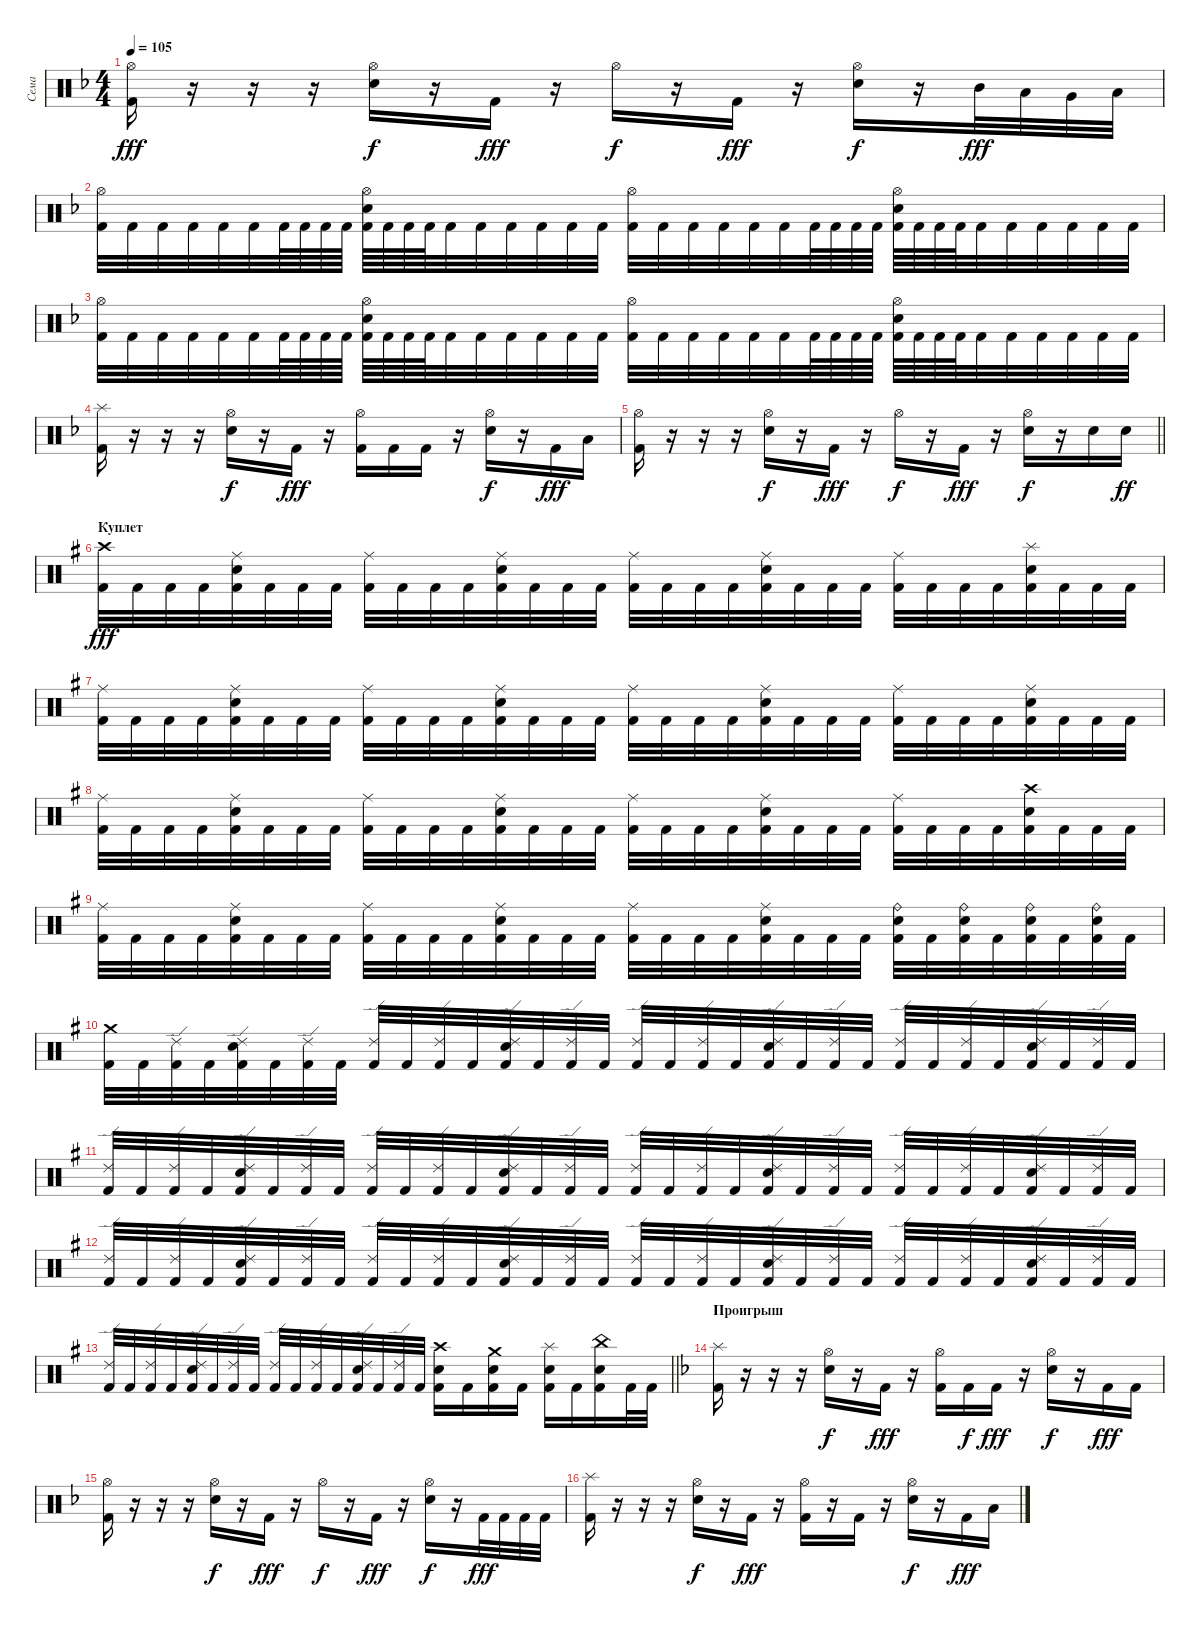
\track ("Сема" "Сема") {instrument percussion}
\staff {score}
\articulation defaults
\ts (4 4)
\tempo 105
\clef neutral
\ks dminor
("Hi-Hat (open)" "Kick (hit) 2").16{dy fff} r.16 r.16 r.16 ("Hi-Hat (open)" "Electric Snare (hit)").16{dy f} r.16 "Kick (hit) 2".16{dy fff} r.16 "Hi-Hat (open)".16{dy f} r.16 "Kick (hit) 2".16{dy fff} r.16 ("Hi-Hat (open)" "Electric Snare (hit)").16{dy f} r.16 "Mid Tom (hit)".32{dy fff} "Low Tom (hit)".32 "Very Low Tom (hit)".32 "Low Floor Tom (hit)".32 |
("Hi-Hat (open)" "Kick (hit) 2").32 "Kick (hit) 2".32 "Kick (hit) 2".32 "Kick (hit) 2".32 "Kick (hit) 2".32 "Kick (hit) 2".32 "Kick (hit) 2".64 "Kick (hit) 2".64 "Kick (hit) 2".64 "Kick (hit) 2".64 ("Hi-Hat (open)" "Electric Snare (hit)" "Kick (hit) 2").64 "Kick (hit) 2".64 "Kick (hit) 2".64 "Kick (hit) 2".64 "Kick (hit) 2".32 "Kick (hit) 2".32 "Kick (hit) 2".32 "Kick (hit) 2".32 "Kick (hit) 2".32 "Kick (hit) 2".32 ("Hi-Hat (open)" "Kick (hit) 2").32 "Kick (hit) 2".32 "Kick (hit) 2".32 "Kick (hit) 2".32 "Kick (hit) 2".32 "Kick (hit) 2".32 "Kick (hit) 2".64 "Kick (hit) 2".64 "Kick (hit) 2".64 "Kick (hit) 2".64 ("Hi-Hat (open)" "Electric Snare (hit)" "Kick (hit) 2").64 "Kick (hit) 2".64 "Kick (hit) 2".64 "Kick (hit) 2".64 "Kick (hit) 2".32 "Kick (hit) 2".32 "Kick (hit) 2".32 "Kick (hit) 2".32 "Kick (hit) 2".32 "Kick (hit) 2".32 |
("Hi-Hat (open)" "Kick (hit) 2").32 "Kick (hit) 2".32 "Kick (hit) 2".32 "Kick (hit) 2".32 "Kick (hit) 2".32 "Kick (hit) 2".32 "Kick (hit) 2".64 "Kick (hit) 2".64 "Kick (hit) 2".64 "Kick (hit) 2".64 ("Hi-Hat (open)" "Electric Snare (hit)" "Kick (hit) 2").64 "Kick (hit) 2".64 "Kick (hit) 2".64 "Kick (hit) 2".64 "Kick (hit) 2".32 "Kick (hit) 2".32 "Kick (hit) 2".32 "Kick (hit) 2".32 "Kick (hit) 2".32 "Kick (hit) 2".32 ("Hi-Hat (open)" "Kick (hit) 2").32 "Kick (hit) 2".32 "Kick (hit) 2".32 "Kick (hit) 2".32 "Kick (hit) 2".32 "Kick (hit) 2".32 "Kick (hit) 2".64 "Kick (hit) 2".64 "Kick (hit) 2".64 "Kick (hit) 2".64 ("Hi-Hat (open)" "Electric Snare (hit)" "Kick (hit) 2").64 "Kick (hit) 2".64 "Kick (hit) 2".64 "Kick (hit) 2".64 "Kick (hit) 2".32 "Kick (hit) 2".32 "Kick (hit) 2".32 "Kick (hit) 2".32 "Kick (hit) 2".32 "Kick (hit) 2".32 |
("Splash (hit)" "Kick (hit) 2").16 r.16 r.16 r.16 ("Hi-Hat (open)" "Electric Snare (hit)").16{dy f} r.16 "Kick (hit) 2".16{dy fff} r.16 ("Hi-Hat (open)" "Kick (hit) 2").16 "Kick (hit) 2".16 "Kick (hit) 2".16 r.16 ("Hi-Hat (open)" "Electric Snare (hit)").16{dy f} r.16 "Kick (hit) 2".16{dy fff} "Low Floor Tom (hit)".16 |
\barLineRight lightlight
("Hi-Hat (open)" "Kick (hit) 2").16 r.16 r.16 r.16 ("Hi-Hat (open)" "Electric Snare (hit)").16{dy f} r.16 "Kick (hit) 2".16{dy fff} r.16 "Hi-Hat (open)".16{dy f} r.16 "Kick (hit) 2".16{dy fff} r.16 ("Hi-Hat (open)" "Electric Snare (hit)").16{dy f} r.16 "Electric Snare (hit)".16 "Electric Snare (hit)".16{dy ff} |
\section ("" "Куплет")
\ks g
("Crash high (hit)" "Kick (hit) 2").32{dy fff} "Kick (hit) 2".32 "Kick (hit) 2".32 "Kick (hit) 2".32 ("Ride (middle)" "Electric Snare (hit)" "Kick (hit) 2").32 "Kick (hit) 2".32 "Kick (hit) 2".32 "Kick (hit) 2".32 ("Ride (middle)" "Kick (hit) 2").32 "Kick (hit) 2".32 "Kick (hit) 2".32 "Kick (hit) 2".32 ("Ride (middle)" "Electric Snare (hit)" "Kick (hit) 2").32 "Kick (hit) 2".32 "Kick (hit) 2".32 "Kick (hit) 2".32 ("Ride (middle)" "Kick (hit) 2").32 "Kick (hit) 2".32 "Kick (hit) 2".32 "Kick (hit) 2".32 ("Ride (middle)" "Electric Snare (hit)" "Kick (hit) 2").32 "Kick (hit) 2".32 "Kick (hit) 2".32 "Kick (hit) 2".32 ("Ride (middle)" "Kick (hit) 2").32 "Kick (hit) 2".32 "Kick (hit) 2".32 "Kick (hit) 2".32 ("Splash (hit)" "Electric Snare (hit)" "Kick (hit) 2").32 "Kick (hit) 2".32 "Kick (hit) 2".32 "Kick (hit) 2".32 |
("Ride (middle)" "Kick (hit) 2").32 "Kick (hit) 2".32 "Kick (hit) 2".32 "Kick (hit) 2".32 ("Ride (middle)" "Electric Snare (hit)" "Kick (hit) 2").32 "Kick (hit) 2".32 "Kick (hit) 2".32 "Kick (hit) 2".32 ("Ride (middle)" "Kick (hit) 2").32 "Kick (hit) 2".32 "Kick (hit) 2".32 "Kick (hit) 2".32 ("Ride (middle)" "Electric Snare (hit)" "Kick (hit) 2").32 "Kick (hit) 2".32 "Kick (hit) 2".32 "Kick (hit) 2".32 ("Ride (middle)" "Kick (hit) 2").32 "Kick (hit) 2".32 "Kick (hit) 2".32 "Kick (hit) 2".32 ("Ride (middle)" "Electric Snare (hit)" "Kick (hit) 2").32 "Kick (hit) 2".32 "Kick (hit) 2".32 "Kick (hit) 2".32 ("Ride (middle)" "Kick (hit) 2").32 "Kick (hit) 2".32 "Kick (hit) 2".32 "Kick (hit) 2".32 ("Ride (middle)" "Electric Snare (hit)" "Kick (hit) 2").32 "Kick (hit) 2".32 "Kick (hit) 2".32 "Kick (hit) 2".32 |
("Ride (middle)" "Kick (hit) 2").32 "Kick (hit) 2".32 "Kick (hit) 2".32 "Kick (hit) 2".32 ("Ride (middle)" "Electric Snare (hit)" "Kick (hit) 2").32 "Kick (hit) 2".32 "Kick (hit) 2".32 "Kick (hit) 2".32 ("Ride (middle)" "Kick (hit) 2").32 "Kick (hit) 2".32 "Kick (hit) 2".32 "Kick (hit) 2".32 ("Ride (middle)" "Electric Snare (hit)" "Kick (hit) 2").32 "Kick (hit) 2".32 "Kick (hit) 2".32 "Kick (hit) 2".32 ("Ride (middle)" "Kick (hit) 2").32 "Kick (hit) 2".32 "Kick (hit) 2".32 "Kick (hit) 2".32 ("Ride (middle)" "Electric Snare (hit)" "Kick (hit) 2").32 "Kick (hit) 2".32 "Kick (hit) 2".32 "Kick (hit) 2".32 ("Ride (middle)" "Kick (hit) 2").32 "Kick (hit) 2".32 "Kick (hit) 2".32 "Kick (hit) 2".32 ("Crash high (hit)" "Electric Snare (hit)" "Kick (hit) 2").32 "Kick (hit) 2".32 "Kick (hit) 2".32 "Kick (hit) 2".32 |
("Ride (middle)" "Kick (hit) 2").32 "Kick (hit) 2".32 "Kick (hit) 2".32 "Kick (hit) 2".32 ("Ride (middle)" "Electric Snare (hit)" "Kick (hit) 2").32 "Kick (hit) 2".32 "Kick (hit) 2".32 "Kick (hit) 2".32 ("Ride (middle)" "Kick (hit) 2").32 "Kick (hit) 2".32 "Kick (hit) 2".32 "Kick (hit) 2".32 ("Ride (middle)" "Electric Snare (hit)" "Kick (hit) 2").32 "Kick (hit) 2".32 "Kick (hit) 2".32 "Kick (hit) 2".32 ("Ride (middle)" "Kick (hit) 2").32 "Kick (hit) 2".32 "Kick (hit) 2".32 "Kick (hit) 2".32 ("Ride (middle)" "Electric Snare (hit)" "Kick (hit) 2").32 "Kick (hit) 2".32 "Kick (hit) 2".32 "Kick (hit) 2".32 ("Ride (bell)" "Electric Snare (hit)" "Kick (hit) 2").32 "Kick (hit) 2".32 ("Ride (bell)" "Electric Snare (hit)" "Kick (hit) 2").32 "Kick (hit) 2".32 ("Ride (bell)" "Electric Snare (hit)" "Kick (hit) 2").32 "Kick (hit) 2".32 ("Ride (bell)" "Electric Snare (hit)" "Kick (hit) 2").32 "Kick (hit) 2".32 |
("Crash medium (hit)" "Kick (hit) 2").32 "Kick (hit) 2".32 ("Ride (edge) 2" "Kick (hit) 2").32 "Kick (hit) 2".32 ("Ride (edge) 2" "Electric Snare (hit)" "Kick (hit) 2").32 "Kick (hit) 2".32 ("Ride (edge) 2" "Kick (hit) 2").32 "Kick (hit) 2".32 ("Ride (edge) 2" "Kick (hit) 2").32 "Kick (hit) 2".32 ("Ride (edge) 2" "Kick (hit) 2").32 "Kick (hit) 2".32 ("Ride (edge) 2" "Electric Snare (hit)" "Kick (hit) 2").32 "Kick (hit) 2".32 ("Ride (edge) 2" "Kick (hit) 2").32 "Kick (hit) 2".32 ("Ride (edge) 2" "Kick (hit) 2").32 "Kick (hit) 2".32 ("Ride (edge) 2" "Kick (hit) 2").32 "Kick (hit) 2".32 ("Ride (edge) 2" "Electric Snare (hit)" "Kick (hit) 2").32 "Kick (hit) 2".32 ("Ride (edge) 2" "Kick (hit) 2").32 "Kick (hit) 2".32 ("Ride (edge) 2" "Kick (hit) 2").32 "Kick (hit) 2".32 ("Ride (edge) 2" "Kick (hit) 2").32 "Kick (hit) 2".32 ("Ride (edge) 2" "Electric Snare (hit)" "Kick (hit) 2").32 "Kick (hit) 2".32 ("Ride (edge) 2" "Kick (hit) 2").32 "Kick (hit) 2".32 |
("Ride (edge) 2" "Kick (hit) 2").32 "Kick (hit) 2".32 ("Ride (edge) 2" "Kick (hit) 2").32 "Kick (hit) 2".32 ("Ride (edge) 2" "Electric Snare (hit)" "Kick (hit) 2").32 "Kick (hit) 2".32 ("Ride (edge) 2" "Kick (hit) 2").32 "Kick (hit) 2".32 ("Ride (edge) 2" "Kick (hit) 2").32 "Kick (hit) 2".32 ("Ride (edge) 2" "Kick (hit) 2").32 "Kick (hit) 2".32 ("Ride (edge) 2" "Electric Snare (hit)" "Kick (hit) 2").32 "Kick (hit) 2".32 ("Ride (edge) 2" "Kick (hit) 2").32 "Kick (hit) 2".32 ("Ride (edge) 2" "Kick (hit) 2").32 "Kick (hit) 2".32 ("Ride (edge) 2" "Kick (hit) 2").32 "Kick (hit) 2".32 ("Ride (edge) 2" "Electric Snare (hit)" "Kick (hit) 2").32 "Kick (hit) 2".32 ("Ride (edge) 2" "Kick (hit) 2").32 "Kick (hit) 2".32 ("Ride (edge) 2" "Kick (hit) 2").32 "Kick (hit) 2".32 ("Ride (edge) 2" "Kick (hit) 2").32 "Kick (hit) 2".32 ("Ride (edge) 2" "Electric Snare (hit)" "Kick (hit) 2").32 "Kick (hit) 2".32 ("Ride (edge) 2" "Kick (hit) 2").32 "Kick (hit) 2".32 |
("Ride (edge) 2" "Kick (hit) 2").32 "Kick (hit) 2".32 ("Ride (edge) 2" "Kick (hit) 2").32 "Kick (hit) 2".32 ("Ride (edge) 2" "Electric Snare (hit)" "Kick (hit) 2").32 "Kick (hit) 2".32 ("Ride (edge) 2" "Kick (hit) 2").32 "Kick (hit) 2".32 ("Ride (edge) 2" "Kick (hit) 2").32 "Kick (hit) 2".32 ("Ride (edge) 2" "Kick (hit) 2").32 "Kick (hit) 2".32 ("Ride (edge) 2" "Electric Snare (hit)" "Kick (hit) 2").32 "Kick (hit) 2".32 ("Ride (edge) 2" "Kick (hit) 2").32 "Kick (hit) 2".32 ("Ride (edge) 2" "Kick (hit) 2").32 "Kick (hit) 2".32 ("Ride (edge) 2" "Kick (hit) 2").32 "Kick (hit) 2".32 ("Ride (edge) 2" "Electric Snare (hit)" "Kick (hit) 2").32 "Kick (hit) 2".32 ("Ride (edge) 2" "Kick (hit) 2").32 "Kick (hit) 2".32 ("Ride (edge) 2" "Kick (hit) 2").32 "Kick (hit) 2".32 ("Ride (edge) 2" "Kick (hit) 2").32 "Kick (hit) 2".32 ("Ride (edge) 2" "Electric Snare (hit)" "Kick (hit) 2").32 "Kick (hit) 2".32 ("Ride (edge) 2" "Kick (hit) 2").32 "Kick (hit) 2".32 |
\barLineRight lightlight
("Ride (edge) 2" "Kick (hit) 2").32 "Kick (hit) 2".32 ("Ride (edge) 2" "Kick (hit) 2").32 "Kick (hit) 2".32 ("Ride (edge) 2" "Electric Snare (hit)" "Kick (hit) 2").32 "Kick (hit) 2".32 ("Ride (edge) 2" "Kick (hit) 2").32 "Kick (hit) 2".32 ("Ride (edge) 2" "Kick (hit) 2").32 "Kick (hit) 2".32 ("Ride (edge) 2" "Kick (hit) 2").32 "Kick (hit) 2".32 ("Ride (edge) 2" "Electric Snare (hit)" "Kick (hit) 2").32 "Kick (hit) 2".32 ("Ride (edge) 2" "Kick (hit) 2").32 "Kick (hit) 2".32 ("Crash high (hit)" "Electric Snare (hit)" "Kick (hit) 2").16 "Kick (hit) 2".16 ("Crash medium (hit)" "Electric Snare (hit)" "Kick (hit) 2").16 "Kick (hit) 2".16 ("Splash (hit)" "Electric Snare (hit)" "Kick (hit) 2").16 "Kick (hit) 2".16 ("China (hit)" "Electric Snare (hit)" "Kick (hit) 2").16 "Kick (hit) 2".32 "Kick (hit) 2".32 |
\section ("" "Проигрыш")
\ks dminor
("Splash (hit)" "Kick (hit) 2").16 r.16 r.16 r.16 ("Hi-Hat (open)" "Electric Snare (hit)").16{dy f} r.16 "Kick (hit) 2".16{dy fff} r.16 ("Hi-Hat (open)" "Kick (hit) 2").16 "Kick (hit) 2".16{dy f} "Kick (hit) 2".16{dy fff} r.16 ("Hi-Hat (open)" "Electric Snare (hit)").16{dy f} r.16 "Kick (hit) 2".16{dy fff} "Kick (hit) 2".16 |
("Hi-Hat (open)" "Kick (hit) 2").16 r.16 r.16 r.16 ("Hi-Hat (open)" "Electric Snare (hit)").16{dy f} r.16 "Kick (hit) 2".16{dy fff} r.16 "Hi-Hat (open)".16{dy f} r.16 "Kick (hit) 2".16{dy fff} r.16 ("Hi-Hat (open)" "Electric Snare (hit)").16{dy f} r.16 "Kick (hit) 2".32{dy fff} "Kick (hit) 2".32 "Kick (hit) 2".32 "Kick (hit) 2".32 |
("Splash (hit)" "Kick (hit) 2").16 r.16 r.16 r.16 ("Hi-Hat (open)" "Electric Snare (hit)").16{dy f} r.16 "Kick (hit) 2".16{dy fff} r.16 ("Hi-Hat (open)" "Kick (hit) 2").16 r.16 "Kick (hit) 2".16 r.16 ("Hi-Hat (open)" "Electric Snare (hit)").16{dy f} r.16 "Kick (hit) 2".16{dy fff} "Low Floor Tom (hit)".16
